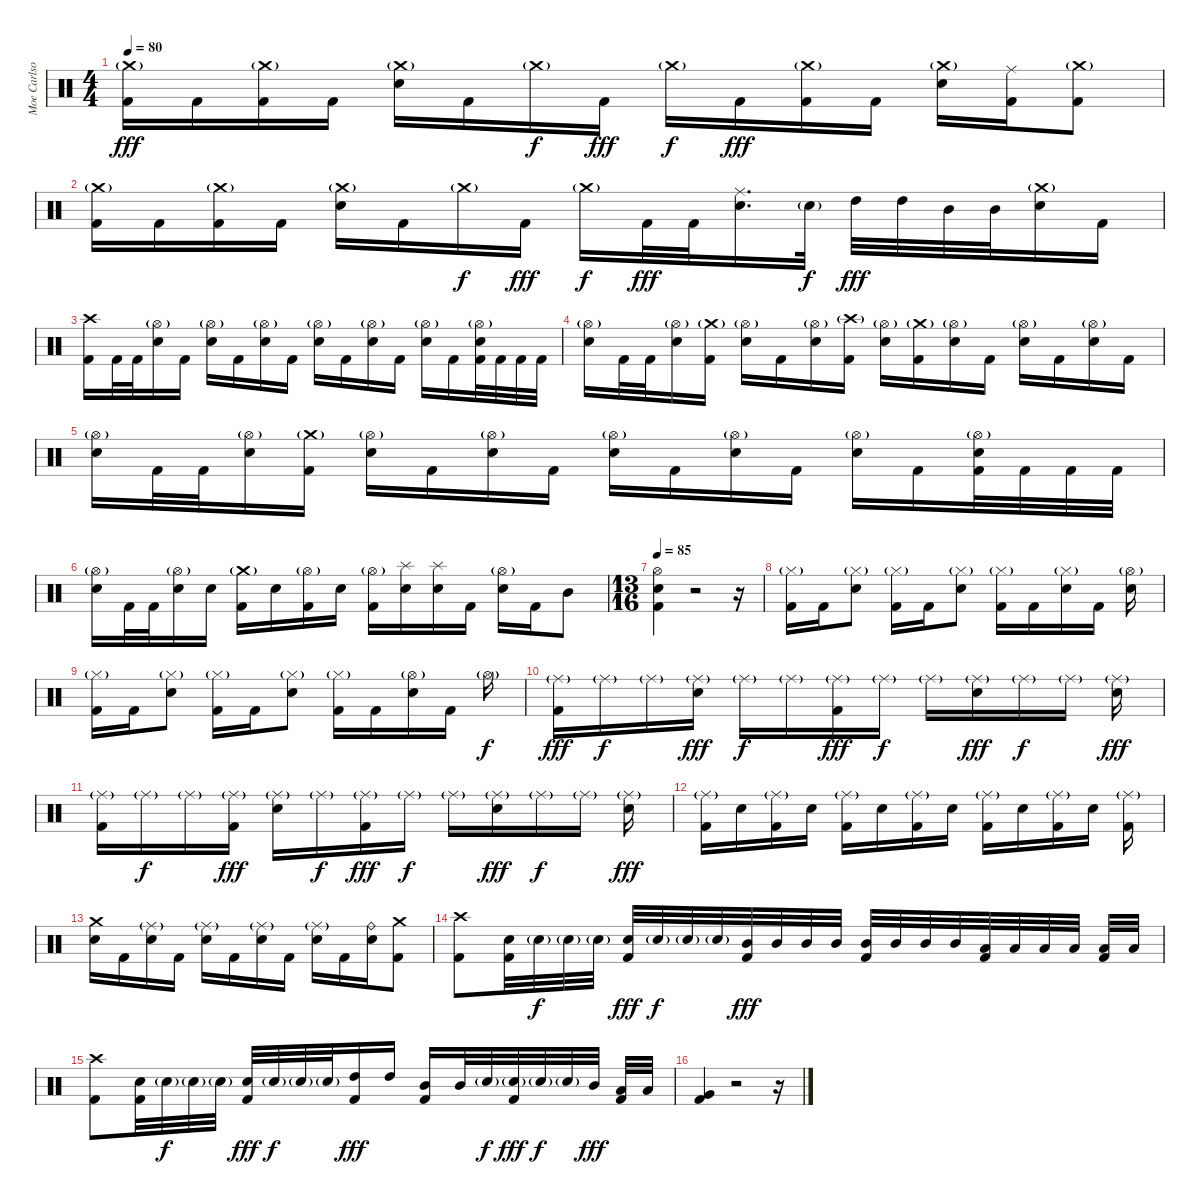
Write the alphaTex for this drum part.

\track ("Moe Carlson" "Moe Carlso") {instrument percussion}
\staff {score}
\articulation defaults
\ts (4 4)
\tempo 80
\clef neutral
\ks c
("Crash medium (hit)"{g} "Kick (hit) 2").16{dy fff} "Kick (hit) 2".16 ("Crash medium (hit)"{g} "Kick (hit) 2").16 "Kick (hit) 2".16 ("Crash medium (hit)"{g} "Electric Snare (hit)").16 "Kick (hit) 2".16 "Crash medium (hit)"{g}.16{dy f} "Kick (hit) 2".16{dy fff} "Crash medium (hit)"{g}.16{dy f} "Kick (hit) 2".16{dy fff} ("Crash medium (hit)"{g} "Kick (hit) 2").16 "Kick (hit) 2".16 ("Crash medium (hit)"{g} "Electric Snare (hit)").16 ("Ride (middle)" "Kick (hit) 2").16 ("Crash medium (hit)"{g} "Kick (hit) 2").8 |
("Crash medium (hit)"{g} "Kick (hit) 2").16 "Kick (hit) 2".16 ("Crash medium (hit)"{g} "Kick (hit) 2").16 "Kick (hit) 2".16 ("Crash medium (hit)"{g} "Electric Snare (hit)").16 "Kick (hit) 2".16 "Crash medium (hit)"{g}.16{dy f} "Kick (hit) 2".16{dy fff} "Crash medium (hit)"{g}.16{dy f} "Kick (hit) 2".32{dy fff} "Kick (hit) 2".32 ("Ride (middle)" "Electric Snare (hit)").16{d} "Electric Snare (hit)"{g}.32{dy f} "High Tom (hit)".32{dy fff} "High Tom (hit)".32 "Mid Tom (hit)".32 "Mid Tom (hit)".32 ("Crash medium (hit)"{g} "Electric Snare (hit)").16 "Kick (hit) 2".16 |
("Crash high (hit)" "Kick (hit) 2").16 "Kick (hit) 2".32 "Kick (hit) 2".32 ("Hi-Hat (open)"{g} "Electric Snare (hit)").16 "Kick (hit) 2".16 ("Hi-Hat (open)"{g} "Electric Snare (hit)").16 "Kick (hit) 2".16 ("Hi-Hat (open)"{g} "Electric Snare (hit)").16 "Kick (hit) 2".16 ("Hi-Hat (open)"{g} "Electric Snare (hit)").16 "Kick (hit) 2".16 ("Hi-Hat (open)"{g} "Electric Snare (hit)").16 "Kick (hit) 2".16 ("Hi-Hat (open)"{g} "Electric Snare (hit)").16 "Kick (hit) 2".16 ("Hi-Hat (open)"{g} "Electric Snare (hit)" "Kick (hit) 2").32 "Kick (hit) 2".32 "Kick (hit) 2".32 "Kick (hit) 2".32 |
("Hi-Hat (open)"{g} "Electric Snare (hit)").16 "Kick (hit) 2".32 "Kick (hit) 2".32 ("Hi-Hat (open)"{g} "Electric Snare (hit)").16 ("Crash medium (hit)"{g} "Kick (hit) 2").16 ("Hi-Hat (open)"{g} "Electric Snare (hit)").16 "Kick (hit) 2".16 ("Hi-Hat (open)"{g} "Electric Snare (hit)").16 ("Crash high (hit)"{g} "Kick (hit) 2").16 ("Hi-Hat (open)"{g} "Electric Snare (hit)").16 ("Crash medium (hit)"{g} "Kick (hit) 2").16 ("Hi-Hat (open)"{g} "Electric Snare (hit)").16 "Kick (hit) 2".16 ("Hi-Hat (open)"{g} "Electric Snare (hit)").16 "Kick (hit) 2".16 ("Hi-Hat (open)"{g} "Electric Snare (hit)").16 "Kick (hit) 2".16 |
("Hi-Hat (open)"{g} "Electric Snare (hit)").16 "Kick (hit) 2".32 "Kick (hit) 2".32 ("Hi-Hat (open)"{g} "Electric Snare (hit)").16 ("Crash medium (hit)"{g} "Kick (hit) 2").16 ("Hi-Hat (open)"{g} "Electric Snare (hit)").16 "Kick (hit) 2".16 ("Hi-Hat (open)"{g} "Electric Snare (hit)").16 "Kick (hit) 2".16 ("Hi-Hat (open)"{g} "Electric Snare (hit)").16 "Kick (hit) 2".16 ("Hi-Hat (open)"{g} "Electric Snare (hit)").16 "Kick (hit) 2".16 ("Hi-Hat (open)"{g} "Electric Snare (hit)").16 "Kick (hit) 2".16 ("Hi-Hat (open)"{g} "Electric Snare (hit)" "Kick (hit) 2").32 "Kick (hit) 2".32 "Kick (hit) 2".32 "Kick (hit) 2".32 |
("Hi-Hat (open)"{g} "Electric Snare (hit)").16 "Kick (hit) 2".32 "Kick (hit) 2".32 ("Hi-Hat (open)"{g} "Electric Snare (hit)").16 "Electric Snare (hit)".16 ("Crash medium (hit)"{g} "Kick (hit) 2").16 "Electric Snare (hit)".16 ("Hi-Hat (open)"{g} "Kick (hit) 2").16 "Electric Snare (hit)".16 ("Hi-Hat (open)"{g} "Kick (hit) 2").16 ("Splash (hit)" "Electric Snare (hit)").16 ("Splash (hit)" "Electric Snare (hit)").16 "Kick (hit) 2".16 ("Hi-Hat (open)"{g} "Electric Snare (hit)").16 "Kick (hit) 2".16 "Mid Tom (hit)".8 |
\ts (13 16)
\tempo 85
("Hi-Hat (open)" "Electric Snare (hit)" "Kick (hit) 2").4 r.2 r.16 |
("Hi-Hat (closed)"{g} "Kick (hit) 2").16 "Kick (hit) 2".16 ("Hi-Hat (closed)"{g} "Electric Snare (hit)").8 ("Hi-Hat (closed)"{g} "Kick (hit) 2").16 "Kick (hit) 2".16 ("Hi-Hat (closed)"{g} "Electric Snare (hit)").8 ("Hi-Hat (closed)"{g} "Kick (hit) 2").16 "Kick (hit) 2".16 ("Hi-Hat (closed)"{g} "Electric Snare (hit)").16 "Kick (hit) 2".16 ("Hi-Hat (open)"{g} "Electric Snare (hit)").16 |
("Hi-Hat (closed)"{g} "Kick (hit) 2").16 "Kick (hit) 2".16 ("Hi-Hat (closed)"{g} "Electric Snare (hit)").8 ("Hi-Hat (closed)"{g} "Kick (hit) 2").16 "Kick (hit) 2".16 ("Hi-Hat (closed)"{g} "Electric Snare (hit)").8 ("Hi-Hat (closed)"{g} "Kick (hit) 2").16 "Kick (hit) 2".16 ("Hi-Hat (open)"{g} "Electric Snare (hit)").16 "Kick (hit) 2".16 "Hi-Hat (open)"{g}.16{dy f} |
("Ride (middle)"{g} "Kick (hit) 2").16{dy fff} "Ride (middle)"{g}.16{dy f} "Ride (middle)"{g}.16 ("Ride (middle)"{g} "Electric Snare (hit)").16{dy fff} "Ride (middle)"{g}.16{dy f} "Ride (middle)"{g}.16 ("Ride (middle)"{g} "Kick (hit) 2").16{dy fff} "Ride (middle)"{g}.16{dy f} "Ride (middle)"{g}.16 ("Ride (middle)"{g} "Electric Snare (hit)").16{dy fff} "Ride (middle)"{g}.16{dy f} "Ride (middle)"{g}.16 ("Ride (middle)"{g} "Electric Snare (hit)").16{dy fff} |
("Ride (middle)"{g} "Kick (hit) 2").16 "Ride (middle)"{g}.16{dy f} "Ride (middle)"{g}.16 ("Ride (middle)"{g} "Kick (hit) 2").16{dy fff} ("Ride (middle)"{g} "Electric Snare (hit)").16 "Ride (middle)"{g}.16{dy f} ("Ride (middle)"{g} "Kick (hit) 2").16{dy fff} "Ride (middle)"{g}.16{dy f} "Ride (middle)"{g}.16 ("Ride (middle)"{g} "Electric Snare (hit)").16{dy fff} "Ride (middle)"{g}.16{dy f} "Ride (middle)"{g}.16 ("Ride (middle)"{g} "Electric Snare (hit)").16{dy fff} |
("Ride (middle)"{g} "Kick (hit) 2").16 "Electric Snare (hit)".16 ("Ride (middle)"{g} "Kick (hit) 2").16 "Electric Snare (hit)".16 ("Ride (middle)"{g} "Kick (hit) 2").16 "Electric Snare (hit)".16 ("Ride (middle)"{g} "Kick (hit) 2").16 "Electric Snare (hit)".16 ("Ride (middle)"{g} "Kick (hit) 2").16 "Electric Snare (hit)".16 ("Ride (middle)"{g} "Kick (hit) 2").16 "Electric Snare (hit)".16 ("Ride (middle)"{g} "Kick (hit) 2").16 |
("Crash medium (hit)" "Electric Snare (hit)").16 "Kick (hit) 2".16 ("Ride (middle)"{g} "Electric Snare (hit)").16 "Kick (hit) 2".16 ("Ride (middle)"{g} "Electric Snare (hit)").16 "Kick (hit) 2".16 ("Ride (middle)"{g} "Electric Snare (hit)").16 "Kick (hit) 2".16 ("Ride (middle)"{g} "Electric Snare (hit)").16 "Kick (hit) 2".16 ("Ride (bell)" "Electric Snare (hit)").16 ("Crash medium (hit)" "Kick (hit) 2").8 |
("Crash high (hit)" "Kick (hit) 2").8 ("Electric Snare (hit)" "Kick (hit) 2").32 "Electric Snare (hit)"{g}.32{dy f} "Electric Snare (hit)"{g}.32 "Electric Snare (hit)"{g}.32 ("Electric Snare (hit)" "Kick (hit) 2").32{dy fff} "Electric Snare (hit)"{g}.32{dy f} "Electric Snare (hit)"{g}.32 "Electric Snare (hit)"{g}.32 ("Mid Tom (hit)" "Kick (hit) 2").32{dy fff} "Mid Tom (hit)".32 "Mid Tom (hit)".32 "Mid Tom (hit)".32 ("Mid Tom (hit)" "Kick (hit) 2").32 "Mid Tom (hit)".32 "Mid Tom (hit)".32 "Mid Tom (hit)".32 ("Low Tom (hit)" "Kick (hit) 2").32 "Low Tom (hit)".32 "Low Tom (hit)".32 "Low Tom (hit)".32 ("Low Tom (hit)" "Kick (hit) 2").32 "Low Tom (hit)".32 |
("Crash high (hit)" "Kick (hit) 2").8 ("Electric Snare (hit)" "Kick (hit) 2").32 "Electric Snare (hit)"{g}.32{dy f} "Electric Snare (hit)"{g}.32 "Electric Snare (hit)"{g}.32 ("Electric Snare (hit)" "Kick (hit) 2").32{dy fff} "Electric Snare (hit)"{g}.32{dy f} "Electric Snare (hit)"{g}.32 "Electric Snare (hit)"{g}.32 ("High Tom (hit)" "Kick (hit) 2").16{dy fff} "High Tom (hit)".16 ("Mid Tom (hit)" "Kick (hit) 2").16 "Mid Tom (hit)".32 "Electric Snare (hit)"{g}.32{dy f} ("Electric Snare (hit)"{g} "Kick (hit) 2").32{dy fff} "Electric Snare (hit)"{g}.32{dy f} "Electric Snare (hit)"{g}.32 "Mid Tom (hit)".32{dy fff} ("Low Tom (hit)" "Kick (hit) 2").32 "Low Tom (hit)".32 |
("Very Low Tom (hit)" "Kick (hit) 2").4 r.2 r.16
